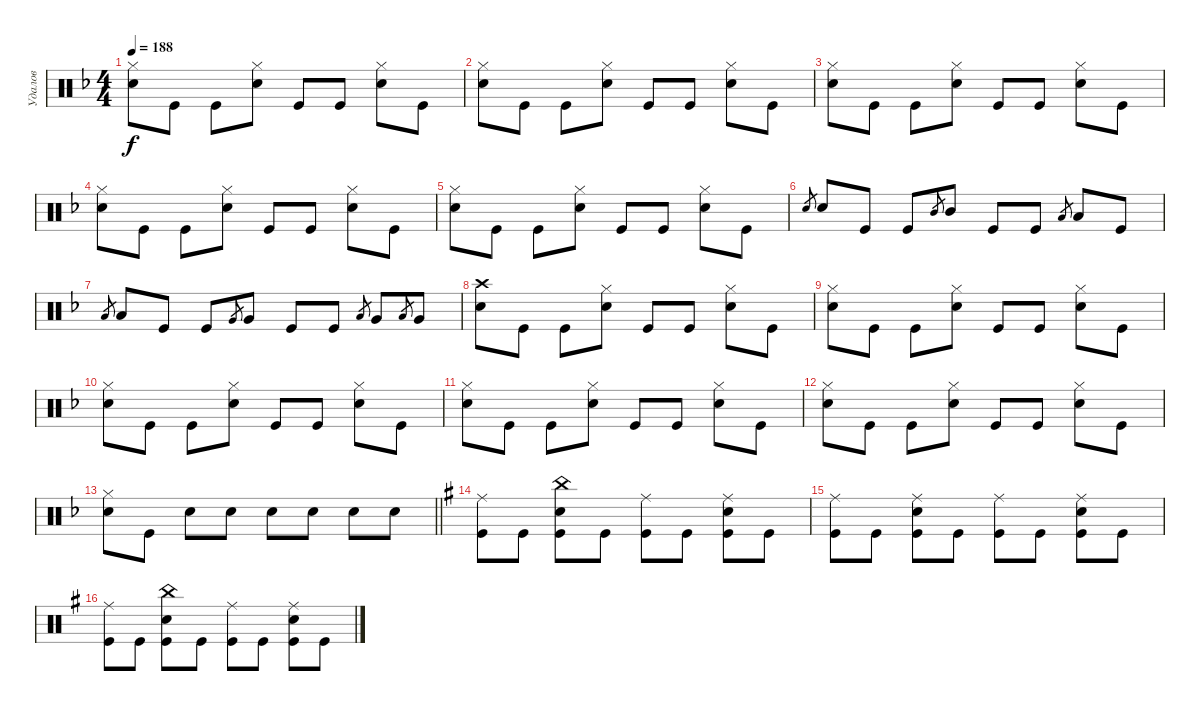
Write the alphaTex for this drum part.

\track ("Удалов" "Удалов") {instrument percussion}
\staff {score}
\articulation defaults
\ts (4 4)
\tempo 188
\clef neutral
\ks f
("Hi-Hat (closed)" "Electric Snare (hit)").8{dy f} "Kick (hit)".8 "Kick (hit)".8 ("Hi-Hat (closed)" "Electric Snare (hit)").8 "Kick (hit)".8 "Kick (hit)".8 ("Hi-Hat (closed)" "Electric Snare (hit)").8 "Kick (hit)".8 |
("Hi-Hat (closed)" "Electric Snare (hit)").8 "Kick (hit)".8 "Kick (hit)".8 ("Hi-Hat (closed)" "Electric Snare (hit)").8 "Kick (hit)".8 "Kick (hit)".8 ("Hi-Hat (closed)" "Electric Snare (hit)").8 "Kick (hit)".8 |
("Hi-Hat (closed)" "Electric Snare (hit)").8 "Kick (hit)".8 "Kick (hit)".8 ("Hi-Hat (closed)" "Electric Snare (hit)").8 "Kick (hit)".8 "Kick (hit)".8 ("Hi-Hat (closed)" "Electric Snare (hit)").8 "Kick (hit)".8 |
("Hi-Hat (closed)" "Electric Snare (hit)").8 "Kick (hit)".8 "Kick (hit)".8 ("Hi-Hat (closed)" "Electric Snare (hit)").8 "Kick (hit)".8 "Kick (hit)".8 ("Hi-Hat (closed)" "Electric Snare (hit)").8 "Kick (hit)".8 |
("Hi-Hat (closed)" "Electric Snare (hit)").8 "Kick (hit)".8 "Kick (hit)".8 ("Hi-Hat (closed)" "Electric Snare (hit)").8 "Kick (hit)".8 "Kick (hit)".8 ("Hi-Hat (closed)" "Electric Snare (hit)").8 "Kick (hit)".8 |
"Electric Snare (hit)".8{gr} "Electric Snare (hit)".8 "Kick (hit)".8 "Kick (hit)".8 "Mid Tom (hit)".8{gr} "Mid Tom (hit)".8 "Kick (hit)".8 "Kick (hit)".8 "Low Tom (hit)".8{gr} "Low Tom (hit)".8 "Kick (hit)".8 |
"Low Tom (hit)".8{gr} "Low Tom (hit)".8 "Kick (hit)".8 "Kick (hit)".8 "Very Low Tom (hit)".8{gr} "Very Low Tom (hit)".8 "Kick (hit)".8 "Kick (hit)".8 "Low Floor Tom (hit)".8{gr} "Very Low Tom (hit)".8 "Low Floor Tom (hit)".8{gr} "Very Low Tom (hit)".8 |
("Crash high (hit)" "Electric Snare (hit)").8 "Kick (hit)".8 "Kick (hit)".8 ("Hi-Hat (closed)" "Electric Snare (hit)").8 "Kick (hit)".8 "Kick (hit)".8 ("Hi-Hat (closed)" "Electric Snare (hit)").8 "Kick (hit)".8 |
("Hi-Hat (closed)" "Electric Snare (hit)").8 "Kick (hit)".8 "Kick (hit)".8 ("Hi-Hat (closed)" "Electric Snare (hit)").8 "Kick (hit)".8 "Kick (hit)".8 ("Hi-Hat (closed)" "Electric Snare (hit)").8 "Kick (hit)".8 |
("Hi-Hat (closed)" "Electric Snare (hit)").8 "Kick (hit)".8 "Kick (hit)".8 ("Hi-Hat (closed)" "Electric Snare (hit)").8 "Kick (hit)".8 "Kick (hit)".8 ("Hi-Hat (closed)" "Electric Snare (hit)").8 "Kick (hit)".8 |
("Hi-Hat (closed)" "Electric Snare (hit)").8 "Kick (hit)".8 "Kick (hit)".8 ("Hi-Hat (closed)" "Electric Snare (hit)").8 "Kick (hit)".8 "Kick (hit)".8 ("Hi-Hat (closed)" "Electric Snare (hit)").8 "Kick (hit)".8 |
("Hi-Hat (closed)" "Electric Snare (hit)").8 "Kick (hit)".8 "Kick (hit)".8 ("Hi-Hat (closed)" "Electric Snare (hit)").8 "Kick (hit)".8 "Kick (hit)".8 ("Hi-Hat (closed)" "Electric Snare (hit)").8 "Kick (hit)".8 |
\barLineRight lightlight
("Hi-Hat (closed)" "Electric Snare (hit)").8 "Kick (hit)".8 "Electric Snare (hit)".8 "Electric Snare (hit)".8 "Electric Snare (hit)".8 "Electric Snare (hit)".8 "Electric Snare (hit)".8 "Electric Snare (hit)".8 |
\ks g
("Ride (middle)" "Kick (hit)").8 "Kick (hit)".8 ("China (hit)" "Electric Snare (hit)" "Kick (hit)").8 "Kick (hit)".8 ("Ride (middle)" "Kick (hit)").8 "Kick (hit)".8 ("Ride (middle)" "Electric Snare (hit)" "Kick (hit)").8 "Kick (hit)".8 |
("Ride (middle)" "Kick (hit)").8 "Kick (hit)".8 ("Ride (middle)" "Electric Snare (hit)" "Kick (hit)").8 "Kick (hit)".8 ("Ride (middle)" "Kick (hit)").8 "Kick (hit)".8 ("Ride (middle)" "Electric Snare (hit)" "Kick (hit)").8 "Kick (hit)".8 |
("Ride (middle)" "Kick (hit)").8 "Kick (hit)".8 ("China (hit)" "Electric Snare (hit)" "Kick (hit)").8 "Kick (hit)".8 ("Ride (middle)" "Kick (hit)").8 "Kick (hit)".8 ("Ride (middle)" "Electric Snare (hit)" "Kick (hit)").8 "Kick (hit)".8
